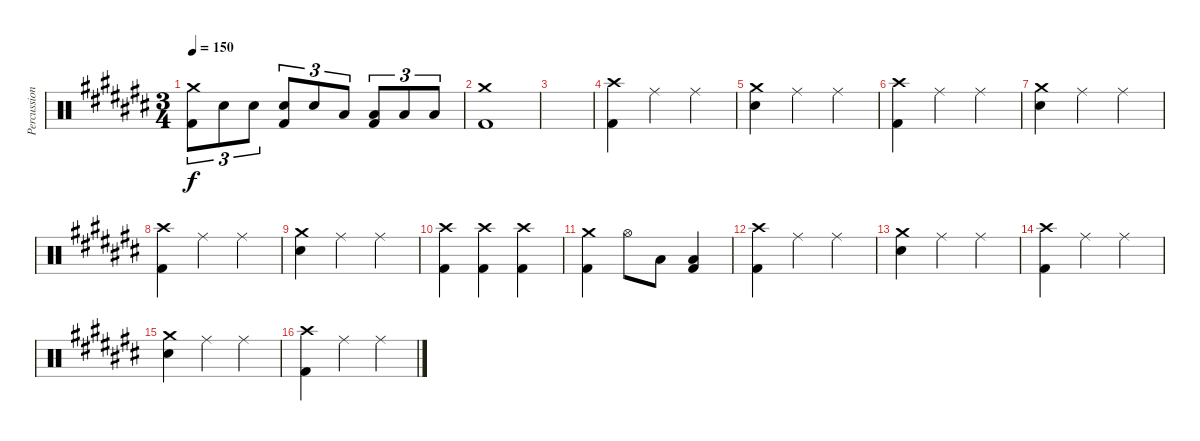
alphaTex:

\track ("Percussion" "Percussion") {instrument percussion}
\staff {score}
\articulation defaults
\ts (3 4)
\tempo 150
\clef neutral
\ks c#
("Crash medium (hit)" "Kick (hit) 2").8{tu (3 2) dy f} "Electric Snare (hit)".8{tu (3 2)} "Electric Snare (hit)".8{tu (3 2)} ("Electric Snare (hit)" "Kick (hit) 2").8{tu (3 2)} "Electric Snare (hit)".8{tu (3 2)} "Low Tom (hit)".8{tu (3 2)} ("Low Tom (hit)" "Kick (hit) 2").8{tu (3 2)} "Low Floor Tom (hit)".8{tu (3 2)} "Low Floor Tom (hit)".8{tu (3 2)} |
("Crash medium (hit)" "Kick (hit) 2").1 |
|
("Crash high (hit)" "Kick (hit) 2").4 "Ride (middle)".4 "Ride (middle)".4 |
("Crash medium (hit)" "Electric Snare (hit)").4 "Ride (middle)".4 "Ride (middle)".4 |
("Crash high (hit)" "Kick (hit) 2").4 "Ride (middle)".4 "Ride (middle)".4 |
("Crash medium (hit)" "Electric Snare (hit)").4 "Ride (middle)".4 "Ride (middle)".4 |
("Crash high (hit)" "Kick (hit) 2").4 "Ride (middle)".4 "Ride (middle)".4 |
("Crash medium (hit)" "Electric Snare (hit)").4 "Ride (middle)".4 "Ride (middle)".4 |
("Crash high (hit)" "Kick (hit) 2").4 ("Crash high (hit)" "Kick (hit) 2").4 ("Crash high (hit)" "Kick (hit) 2").4 |
("Crash medium (hit)" "Kick (hit) 2").4 "Hi-Hat (open)".8 "Low Tom (hit)".8 ("Low Tom (hit)" "Kick (hit) 2").4 |
("Crash high (hit)" "Kick (hit) 2").4 "Ride (middle)".4 "Ride (middle)".4 |
("Crash medium (hit)" "Electric Snare (hit)").4 "Ride (middle)".4 "Ride (middle)".4 |
("Crash high (hit)" "Kick (hit) 2").4 "Ride (middle)".4 "Ride (middle)".4 |
("Crash medium (hit)" "Electric Snare (hit)").4 "Ride (middle)".4 "Ride (middle)".4 |
("Crash high (hit)" "Kick (hit) 2").4 "Ride (middle)".4 "Ride (middle)".4
